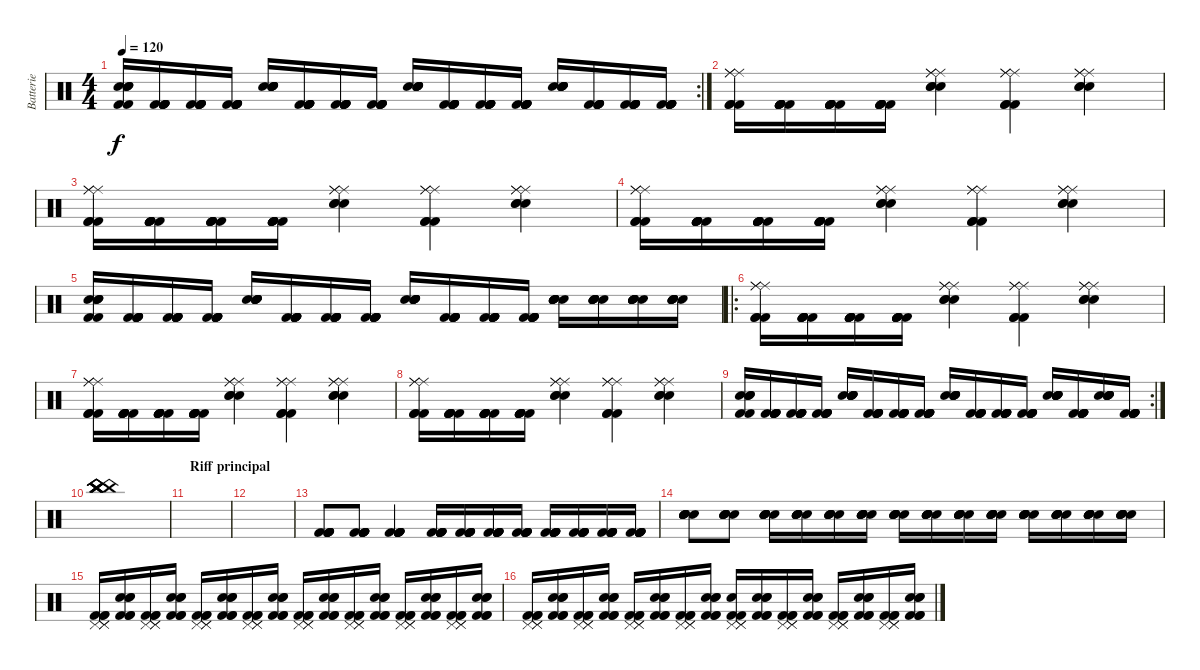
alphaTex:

\track ("Batterie" "Batterie") {instrument percussion}
\staff {score}
\articulation defaults
\rc 2
\ts (4 4)
\tempo 120
\clef neutral
\ks c
("Snare (hit) 2" "Snare (hit) 2" "Snare (hit) 2" "Snare (hit) 2" "Kick (hit) 2" "Kick (hit) 2").16{dy f} ("Kick (hit) 2" "Kick (hit) 2" "Kick (hit) 2" "Kick (hit) 2" "Kick (hit) 2" "Kick (hit) 2").16 ("Kick (hit) 2" "Kick (hit) 2" "Kick (hit) 2" "Kick (hit) 2" "Kick (hit) 2" "Kick (hit) 2").16 ("Kick (hit) 2" "Kick (hit) 2" "Kick (hit) 2" "Kick (hit) 2" "Kick (hit) 2" "Kick (hit) 2").16 ("Snare (hit) 2" "Snare (hit) 2" "Snare (hit) 2" "Snare (hit) 2" "Snare (hit) 2" "Snare (hit) 2").16 ("Kick (hit) 2" "Kick (hit) 2" "Kick (hit) 2" "Kick (hit) 2" "Kick (hit) 2" "Kick (hit) 2").16 ("Kick (hit) 2" "Kick (hit) 2" "Kick (hit) 2" "Kick (hit) 2" "Kick (hit) 2" "Kick (hit) 2").16 ("Kick (hit) 2" "Kick (hit) 2" "Kick (hit) 2" "Kick (hit) 2" "Kick (hit) 2" "Kick (hit) 2").16 ("Snare (hit) 2" "Snare (hit) 2" "Snare (hit) 2" "Snare (hit) 2" "Snare (hit) 2" "Snare (hit) 2").16 ("Kick (hit) 2" "Kick (hit) 2" "Kick (hit) 2" "Kick (hit) 2" "Kick (hit) 2" "Kick (hit) 2").16 ("Kick (hit) 2" "Kick (hit) 2" "Kick (hit) 2" "Kick (hit) 2" "Kick (hit) 2" "Kick (hit) 2").16 ("Kick (hit) 2" "Kick (hit) 2" "Kick (hit) 2" "Kick (hit) 2" "Kick (hit) 2" "Kick (hit) 2").16 ("Snare (hit) 2" "Snare (hit) 2" "Snare (hit) 2" "Snare (hit) 2" "Snare (hit) 2" "Snare (hit) 2").16 ("Kick (hit) 2" "Kick (hit) 2" "Kick (hit) 2" "Kick (hit) 2" "Kick (hit) 2" "Kick (hit) 2").16 ("Kick (hit) 2" "Kick (hit) 2" "Kick (hit) 2" "Kick (hit) 2" "Kick (hit) 2" "Kick (hit) 2").16 ("Kick (hit) 2" "Kick (hit) 2" "Kick (hit) 2" "Kick (hit) 2" "Kick (hit) 2" "Kick (hit) 2").16 |
("Ride (middle)" "Ride (middle)" "Ride (middle)" "Kick (hit) 2" "Kick (hit) 2" "Kick (hit) 2").16 ("Kick (hit) 2" "Kick (hit) 2" "Kick (hit) 2" "Kick (hit) 2" "Kick (hit) 2" "Kick (hit) 2").16 ("Kick (hit) 2" "Kick (hit) 2" "Kick (hit) 2" "Kick (hit) 2" "Kick (hit) 2" "Kick (hit) 2").16 ("Kick (hit) 2" "Kick (hit) 2" "Kick (hit) 2" "Kick (hit) 2" "Kick (hit) 2" "Kick (hit) 2").16 ("Ride (middle)" "Ride (middle)" "Ride (middle)" "Snare (hit) 2" "Snare (hit) 2" "Snare (hit) 2").4 ("Kick (hit) 2" "Ride (middle)" "Ride (middle)" "Ride (middle)" "Kick (hit) 2" "Kick (hit) 2").4 ("Snare (hit) 2" "Snare (hit) 2" "Ride (middle)" "Ride (middle)" "Ride (middle)" "Snare (hit) 2").4 |
("Ride (middle)" "Ride (middle)" "Ride (middle)" "Kick (hit) 2" "Kick (hit) 2" "Kick (hit) 2").16 ("Kick (hit) 2" "Kick (hit) 2" "Kick (hit) 2" "Kick (hit) 2" "Kick (hit) 2" "Kick (hit) 2").16 ("Kick (hit) 2" "Kick (hit) 2" "Kick (hit) 2" "Kick (hit) 2" "Kick (hit) 2" "Kick (hit) 2").16 ("Kick (hit) 2" "Kick (hit) 2" "Kick (hit) 2" "Kick (hit) 2" "Kick (hit) 2" "Kick (hit) 2").16 ("Ride (middle)" "Ride (middle)" "Ride (middle)" "Snare (hit) 2" "Snare (hit) 2" "Snare (hit) 2").4 ("Kick (hit) 2" "Ride (middle)" "Ride (middle)" "Ride (middle)" "Kick (hit) 2" "Kick (hit) 2").4 ("Snare (hit) 2" "Snare (hit) 2" "Ride (middle)" "Ride (middle)" "Ride (middle)" "Snare (hit) 2").4 |
("Ride (middle)" "Ride (middle)" "Ride (middle)" "Kick (hit) 2" "Kick (hit) 2" "Kick (hit) 2").16 ("Kick (hit) 2" "Kick (hit) 2" "Kick (hit) 2" "Kick (hit) 2" "Kick (hit) 2" "Kick (hit) 2").16 ("Kick (hit) 2" "Kick (hit) 2" "Kick (hit) 2" "Kick (hit) 2" "Kick (hit) 2" "Kick (hit) 2").16 ("Kick (hit) 2" "Kick (hit) 2" "Kick (hit) 2" "Kick (hit) 2" "Kick (hit) 2" "Kick (hit) 2").16 ("Ride (middle)" "Ride (middle)" "Ride (middle)" "Snare (hit) 2" "Snare (hit) 2" "Snare (hit) 2").4 ("Kick (hit) 2" "Ride (middle)" "Ride (middle)" "Ride (middle)" "Kick (hit) 2" "Kick (hit) 2").4 ("Snare (hit) 2" "Snare (hit) 2" "Ride (middle)" "Ride (middle)" "Ride (middle)" "Snare (hit) 2").4 |
("Snare (hit) 2" "Snare (hit) 2" "Snare (hit) 2" "Snare (hit) 2" "Kick (hit) 2" "Kick (hit) 2").16 ("Kick (hit) 2" "Kick (hit) 2" "Kick (hit) 2" "Kick (hit) 2" "Kick (hit) 2" "Kick (hit) 2").16 ("Kick (hit) 2" "Kick (hit) 2" "Kick (hit) 2" "Kick (hit) 2" "Kick (hit) 2" "Kick (hit) 2").16 ("Kick (hit) 2" "Kick (hit) 2" "Kick (hit) 2" "Kick (hit) 2" "Kick (hit) 2" "Kick (hit) 2").16 ("Snare (hit) 2" "Snare (hit) 2" "Snare (hit) 2" "Snare (hit) 2" "Snare (hit) 2" "Snare (hit) 2").16 ("Kick (hit) 2" "Kick (hit) 2" "Kick (hit) 2" "Kick (hit) 2" "Kick (hit) 2" "Kick (hit) 2").16 ("Kick (hit) 2" "Kick (hit) 2" "Kick (hit) 2" "Kick (hit) 2" "Kick (hit) 2" "Kick (hit) 2").16 ("Kick (hit) 2" "Kick (hit) 2" "Kick (hit) 2" "Kick (hit) 2" "Kick (hit) 2" "Kick (hit) 2").16 ("Snare (hit) 2" "Snare (hit) 2" "Snare (hit) 2" "Snare (hit) 2" "Snare (hit) 2" "Snare (hit) 2").16 ("Kick (hit) 2" "Kick (hit) 2" "Kick (hit) 2" "Kick (hit) 2" "Kick (hit) 2" "Kick (hit) 2").16 ("Kick (hit) 2" "Kick (hit) 2" "Kick (hit) 2" "Kick (hit) 2" "Kick (hit) 2" "Kick (hit) 2").16 ("Kick (hit) 2" "Kick (hit) 2" "Kick (hit) 2" "Kick (hit) 2" "Kick (hit) 2" "Kick (hit) 2").16 ("Snare (hit) 2" "Snare (hit) 2" "Snare (hit) 2" "Snare (hit) 2" "Snare (hit) 2" "Snare (hit) 2").16 ("Snare (hit) 2" "Snare (hit) 2" "Snare (hit) 2" "Snare (hit) 2" "Snare (hit) 2" "Snare (hit) 2").16 ("Snare (hit) 2" "Snare (hit) 2" "Snare (hit) 2" "Snare (hit) 2" "Snare (hit) 2" "Snare (hit) 2").16 ("Snare (hit) 2" "Snare (hit) 2" "Snare (hit) 2" "Snare (hit) 2" "Snare (hit) 2" "Snare (hit) 2").16 |
\ro
("Ride (middle)" "Ride (middle)" "Ride (middle)" "Kick (hit) 2" "Kick (hit) 2" "Kick (hit) 2").16 ("Kick (hit) 2" "Kick (hit) 2" "Kick (hit) 2" "Kick (hit) 2" "Kick (hit) 2" "Kick (hit) 2").16 ("Kick (hit) 2" "Kick (hit) 2" "Kick (hit) 2" "Kick (hit) 2" "Kick (hit) 2" "Kick (hit) 2").16 ("Kick (hit) 2" "Kick (hit) 2" "Kick (hit) 2" "Kick (hit) 2" "Kick (hit) 2" "Kick (hit) 2").16 ("Ride (middle)" "Ride (middle)" "Ride (middle)" "Snare (hit) 2" "Snare (hit) 2" "Snare (hit) 2").4 ("Kick (hit) 2" "Ride (middle)" "Ride (middle)" "Ride (middle)" "Kick (hit) 2" "Kick (hit) 2").4 ("Snare (hit) 2" "Snare (hit) 2" "Ride (middle)" "Ride (middle)" "Ride (middle)" "Snare (hit) 2").4 |
("Ride (middle)" "Ride (middle)" "Ride (middle)" "Kick (hit) 2" "Kick (hit) 2" "Kick (hit) 2").16 ("Kick (hit) 2" "Kick (hit) 2" "Kick (hit) 2" "Kick (hit) 2" "Kick (hit) 2" "Kick (hit) 2").16 ("Kick (hit) 2" "Kick (hit) 2" "Kick (hit) 2" "Kick (hit) 2" "Kick (hit) 2" "Kick (hit) 2").16 ("Kick (hit) 2" "Kick (hit) 2" "Kick (hit) 2" "Kick (hit) 2" "Kick (hit) 2" "Kick (hit) 2").16 ("Ride (middle)" "Ride (middle)" "Ride (middle)" "Snare (hit) 2" "Snare (hit) 2" "Snare (hit) 2").4 ("Kick (hit) 2" "Ride (middle)" "Ride (middle)" "Ride (middle)" "Kick (hit) 2" "Kick (hit) 2").4 ("Snare (hit) 2" "Snare (hit) 2" "Ride (middle)" "Ride (middle)" "Ride (middle)" "Snare (hit) 2").4 |
("Ride (middle)" "Ride (middle)" "Ride (middle)" "Kick (hit) 2" "Kick (hit) 2" "Kick (hit) 2").16 ("Kick (hit) 2" "Kick (hit) 2" "Kick (hit) 2" "Kick (hit) 2" "Kick (hit) 2" "Kick (hit) 2").16 ("Kick (hit) 2" "Kick (hit) 2" "Kick (hit) 2" "Kick (hit) 2" "Kick (hit) 2" "Kick (hit) 2").16 ("Kick (hit) 2" "Kick (hit) 2" "Kick (hit) 2" "Kick (hit) 2" "Kick (hit) 2" "Kick (hit) 2").16 ("Ride (middle)" "Ride (middle)" "Ride (middle)" "Snare (hit) 2" "Snare (hit) 2" "Snare (hit) 2").4 ("Kick (hit) 2" "Ride (middle)" "Ride (middle)" "Ride (middle)" "Kick (hit) 2" "Kick (hit) 2").4 ("Snare (hit) 2" "Snare (hit) 2" "Ride (middle)" "Ride (middle)" "Ride (middle)" "Snare (hit) 2").4 |
\rc 2
("Snare (hit) 2" "Snare (hit) 2" "Snare (hit) 2" "Snare (hit) 2" "Kick (hit) 2" "Kick (hit) 2").16 ("Kick (hit) 2" "Kick (hit) 2" "Kick (hit) 2" "Kick (hit) 2" "Kick (hit) 2" "Kick (hit) 2").16 ("Kick (hit) 2" "Kick (hit) 2" "Kick (hit) 2" "Kick (hit) 2" "Kick (hit) 2" "Kick (hit) 2").16 ("Kick (hit) 2" "Kick (hit) 2" "Kick (hit) 2" "Kick (hit) 2" "Kick (hit) 2" "Kick (hit) 2").16 ("Snare (hit) 2" "Snare (hit) 2" "Snare (hit) 2" "Snare (hit) 2" "Snare (hit) 2" "Snare (hit) 2").16 ("Kick (hit) 2" "Kick (hit) 2" "Kick (hit) 2" "Kick (hit) 2" "Kick (hit) 2" "Kick (hit) 2").16 ("Kick (hit) 2" "Kick (hit) 2" "Kick (hit) 2" "Kick (hit) 2" "Kick (hit) 2" "Kick (hit) 2").16 ("Kick (hit) 2" "Kick (hit) 2" "Kick (hit) 2" "Kick (hit) 2" "Kick (hit) 2" "Kick (hit) 2").16 ("Snare (hit) 2" "Snare (hit) 2" "Snare (hit) 2" "Snare (hit) 2" "Snare (hit) 2" "Snare (hit) 2").16 ("Kick (hit) 2" "Kick (hit) 2" "Kick (hit) 2" "Kick (hit) 2" "Kick (hit) 2" "Kick (hit) 2").16 ("Kick (hit) 2" "Kick (hit) 2" "Kick (hit) 2" "Kick (hit) 2" "Kick (hit) 2" "Kick (hit) 2").16 ("Kick (hit) 2" "Kick (hit) 2" "Kick (hit) 2" "Kick (hit) 2" "Kick (hit) 2" "Kick (hit) 2").16 ("Snare (hit) 2" "Snare (hit) 2" "Snare (hit) 2" "Snare (hit) 2" "Snare (hit) 2" "Snare (hit) 2").16 ("Kick (hit) 2" "Kick (hit) 2" "Kick (hit) 2" "Kick (hit) 2" "Kick (hit) 2" "Kick (hit) 2").16 ("Snare (hit) 2" "Snare (hit) 2" "Snare (hit) 2" "Snare (hit) 2" "Snare (hit) 2" "Snare (hit) 2").16 ("Kick (hit) 2" "Kick (hit) 2" "Kick (hit) 2" "Kick (hit) 2" "Kick (hit) 2" "Kick (hit) 2").16 |
("China (hit)" "China (hit)" "China (hit)" "China (hit)" "China (hit)" "China (hit)").1 |
\section ("" "Riff principal")
|
|
("Kick (hit) 2" "Kick (hit) 2" "Kick (hit) 2" "Kick (hit) 2" "Kick (hit) 2" "Kick (hit) 2").8 ("Kick (hit) 2" "Kick (hit) 2" "Kick (hit) 2" "Kick (hit) 2" "Kick (hit) 2" "Kick (hit) 2").8 ("Kick (hit) 2" "Kick (hit) 2" "Kick (hit) 2" "Kick (hit) 2" "Kick (hit) 2" "Kick (hit) 2").4 ("Kick (hit) 2" "Kick (hit) 2" "Kick (hit) 2" "Kick (hit) 2" "Kick (hit) 2" "Kick (hit) 2").16 ("Kick (hit) 2" "Kick (hit) 2" "Kick (hit) 2" "Kick (hit) 2" "Kick (hit) 2" "Kick (hit) 2").16 ("Kick (hit) 2" "Kick (hit) 2" "Kick (hit) 2" "Kick (hit) 2" "Kick (hit) 2" "Kick (hit) 2").16 ("Kick (hit) 2" "Kick (hit) 2" "Kick (hit) 2" "Kick (hit) 2" "Kick (hit) 2" "Kick (hit) 2").16 ("Kick (hit) 2" "Kick (hit) 2" "Kick (hit) 2" "Kick (hit) 2" "Kick (hit) 2" "Kick (hit) 2").16 ("Kick (hit) 2" "Kick (hit) 2" "Kick (hit) 2" "Kick (hit) 2" "Kick (hit) 2" "Kick (hit) 2").16 ("Kick (hit) 2" "Kick (hit) 2" "Kick (hit) 2" "Kick (hit) 2" "Kick (hit) 2" "Kick (hit) 2").16 ("Kick (hit) 2" "Kick (hit) 2" "Kick (hit) 2" "Kick (hit) 2" "Kick (hit) 2" "Kick (hit) 2").16 |
("Snare (hit) 2" "Snare (hit) 2" "Snare (hit) 2" "Snare (hit) 2" "Snare (hit) 2" "Snare (hit) 2").8 ("Snare (hit) 2" "Snare (hit) 2" "Snare (hit) 2" "Snare (hit) 2" "Snare (hit) 2" "Snare (hit) 2").8 ("Snare (hit) 2" "Snare (hit) 2" "Snare (hit) 2" "Snare (hit) 2" "Snare (hit) 2" "Snare (hit) 2").16 ("Snare (hit) 2" "Snare (hit) 2" "Snare (hit) 2" "Snare (hit) 2" "Snare (hit) 2" "Snare (hit) 2").16 ("Snare (hit) 2" "Snare (hit) 2" "Snare (hit) 2" "Snare (hit) 2" "Snare (hit) 2" "Snare (hit) 2").16 ("Snare (hit) 2" "Snare (hit) 2" "Snare (hit) 2" "Snare (hit) 2" "Snare (hit) 2" "Snare (hit) 2").16 ("Snare (hit) 2" "Snare (hit) 2" "Snare (hit) 2" "Snare (hit) 2" "Snare (hit) 2" "Snare (hit) 2").16 ("Snare (hit) 2" "Snare (hit) 2" "Snare (hit) 2" "Snare (hit) 2" "Snare (hit) 2" "Snare (hit) 2").16 ("Snare (hit) 2" "Snare (hit) 2" "Snare (hit) 2" "Snare (hit) 2" "Snare (hit) 2" "Snare (hit) 2").16 ("Snare (hit) 2" "Snare (hit) 2" "Snare (hit) 2" "Snare (hit) 2" "Snare (hit) 2" "Snare (hit) 2").16 ("Snare (hit) 2" "Snare (hit) 2" "Snare (hit) 2" "Snare (hit) 2" "Snare (hit) 2" "Snare (hit) 2").16 ("Snare (hit) 2" "Snare (hit) 2" "Snare (hit) 2" "Snare (hit) 2" "Snare (hit) 2" "Snare (hit) 2").16 ("Snare (hit) 2" "Snare (hit) 2" "Snare (hit) 2" "Snare (hit) 2" "Snare (hit) 2" "Snare (hit) 2").16 ("Snare (hit) 2" "Snare (hit) 2" "Snare (hit) 2" "Snare (hit) 2" "Snare (hit) 2" "Snare (hit) 2").16 |
("Pedal Hi-Hat (hit)" "Pedal Hi-Hat (hit)" "Pedal Hi-Hat (hit)" "Kick (hit) 2" "Kick (hit) 2" "Kick (hit) 2").16 ("Kick (hit) 2" "Kick (hit) 2" "Kick (hit) 2" "Snare (hit) 2" "Snare (hit) 2" "Snare (hit) 2").16 ("Pedal Hi-Hat (hit)" "Pedal Hi-Hat (hit)" "Pedal Hi-Hat (hit)" "Kick (hit) 2" "Kick (hit) 2" "Kick (hit) 2").16 ("Kick (hit) 2" "Kick (hit) 2" "Kick (hit) 2" "Snare (hit) 2" "Snare (hit) 2" "Snare (hit) 2").16 ("Pedal Hi-Hat (hit)" "Pedal Hi-Hat (hit)" "Pedal Hi-Hat (hit)" "Kick (hit) 2" "Kick (hit) 2" "Kick (hit) 2").16 ("Kick (hit) 2" "Kick (hit) 2" "Kick (hit) 2" "Snare (hit) 2" "Snare (hit) 2" "Snare (hit) 2").16 ("Pedal Hi-Hat (hit)" "Pedal Hi-Hat (hit)" "Pedal Hi-Hat (hit)" "Kick (hit) 2" "Kick (hit) 2" "Kick (hit) 2").16 ("Kick (hit) 2" "Kick (hit) 2" "Kick (hit) 2" "Snare (hit) 2" "Snare (hit) 2" "Snare (hit) 2").16 ("Pedal Hi-Hat (hit)" "Pedal Hi-Hat (hit)" "Pedal Hi-Hat (hit)" "Kick (hit) 2" "Kick (hit) 2" "Kick (hit) 2").16 ("Kick (hit) 2" "Kick (hit) 2" "Kick (hit) 2" "Snare (hit) 2" "Snare (hit) 2" "Snare (hit) 2").16 ("Pedal Hi-Hat (hit)" "Pedal Hi-Hat (hit)" "Pedal Hi-Hat (hit)" "Kick (hit) 2" "Kick (hit) 2" "Kick (hit) 2").16 ("Kick (hit) 2" "Kick (hit) 2" "Kick (hit) 2" "Snare (hit) 2" "Snare (hit) 2" "Snare (hit) 2").16 ("Pedal Hi-Hat (hit)" "Pedal Hi-Hat (hit)" "Pedal Hi-Hat (hit)" "Kick (hit) 2" "Kick (hit) 2" "Kick (hit) 2").16 ("Kick (hit) 2" "Kick (hit) 2" "Kick (hit) 2" "Snare (hit) 2" "Snare (hit) 2" "Snare (hit) 2").16 ("Pedal Hi-Hat (hit)" "Pedal Hi-Hat (hit)" "Pedal Hi-Hat (hit)" "Kick (hit) 2" "Kick (hit) 2" "Kick (hit) 2").16 ("Kick (hit) 2" "Kick (hit) 2" "Kick (hit) 2" "Snare (hit) 2" "Snare (hit) 2" "Snare (hit) 2").16 |
("Pedal Hi-Hat (hit)" "Pedal Hi-Hat (hit)" "Pedal Hi-Hat (hit)" "Kick (hit) 2" "Kick (hit) 2" "Kick (hit) 2").16 ("Kick (hit) 2" "Kick (hit) 2" "Kick (hit) 2" "Snare (hit) 2" "Snare (hit) 2" "Snare (hit) 2").16 ("Pedal Hi-Hat (hit)" "Pedal Hi-Hat (hit)" "Pedal Hi-Hat (hit)" "Kick (hit) 2" "Kick (hit) 2" "Kick (hit) 2").16 ("Kick (hit) 2" "Kick (hit) 2" "Kick (hit) 2" "Snare (hit) 2" "Snare (hit) 2" "Snare (hit) 2").16 ("Pedal Hi-Hat (hit)" "Pedal Hi-Hat (hit)" "Pedal Hi-Hat (hit)" "Kick (hit) 2" "Kick (hit) 2" "Kick (hit) 2").16 ("Kick (hit) 2" "Kick (hit) 2" "Kick (hit) 2" "Snare (hit) 2" "Snare (hit) 2" "Snare (hit) 2").16 ("Pedal Hi-Hat (hit)" "Pedal Hi-Hat (hit)" "Pedal Hi-Hat (hit)" "Kick (hit) 2" "Kick (hit) 2" "Kick (hit) 2").16 ("Kick (hit) 2" "Kick (hit) 2" "Kick (hit) 2" "Snare (hit) 2" "Snare (hit) 2" "Snare (hit) 2").16 ("Pedal Hi-Hat (hit)" "Pedal Hi-Hat (hit)" "Pedal Hi-Hat (hit)" "Snare (hit)" "Kick (hit) 2" "Kick (hit) 2").16 ("Kick (hit) 2" "Kick (hit) 2" "Kick (hit) 2" "Snare (hit) 2" "Snare (hit) 2" "Snare (hit) 2").16 ("Pedal Hi-Hat (hit)" "Pedal Hi-Hat (hit)" "Pedal Hi-Hat (hit)" "Kick (hit) 2" "Kick (hit) 2" "Kick (hit) 2").16 ("Kick (hit) 2" "Kick (hit) 2" "Kick (hit) 2" "Snare (hit) 2" "Snare (hit) 2" "Snare (hit) 2").16 ("Pedal Hi-Hat (hit)" "Pedal Hi-Hat (hit)" "Pedal Hi-Hat (hit)" "Kick (hit) 2" "Kick (hit) 2" "Kick (hit) 2").16 ("Kick (hit) 2" "Kick (hit) 2" "Kick (hit) 2" "Snare (hit) 2" "Snare (hit) 2" "Snare (hit) 2").16 ("Pedal Hi-Hat (hit)" "Pedal Hi-Hat (hit)" "Pedal Hi-Hat (hit)" "Kick (hit) 2" "Kick (hit) 2" "Kick (hit) 2").16 ("Kick (hit) 2" "Kick (hit) 2" "Kick (hit) 2" "Snare (hit) 2" "Snare (hit) 2" "Snare (hit) 2").16
